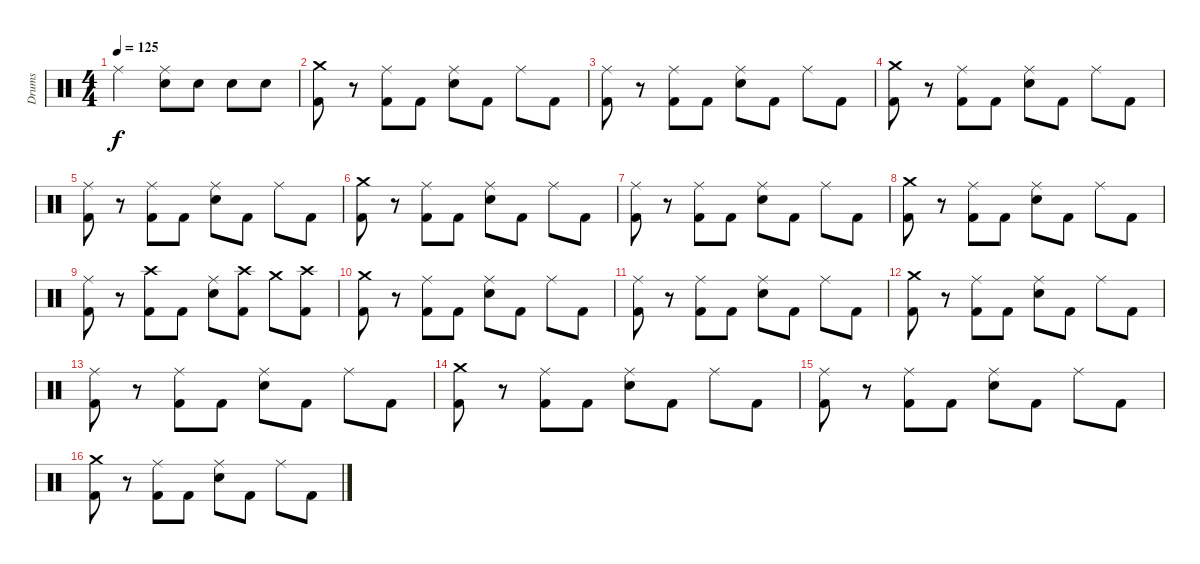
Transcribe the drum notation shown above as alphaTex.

\track ("Drums" "Drums") {instrument percussion}
\staff {score}
\articulation defaults
\ts (4 4)
\tempo 125
\clef neutral
\ks c "Ride (middle)".2{dy f}
("Ride (middle)" "Electric Snare (hit)").8 "Electric Snare (hit)".8 "Electric Snare (hit)".8 "Electric Snare (hit)".8 |
("Crash medium (hit)" "Kick (hit) 2").8 r.8 ("Ride (middle)" "Kick (hit) 2").8 "Kick (hit) 2".8 ("Ride (middle)" "Electric Snare (hit)").8 "Kick (hit) 2".8 "Ride (middle)".8 "Kick (hit) 2".8 |
("Ride (middle)" "Kick (hit) 2").8 r.8 ("Ride (middle)" "Kick (hit) 2").8 "Kick (hit) 2".8 ("Ride (middle)" "Electric Snare (hit)").8 "Kick (hit) 2".8 "Ride (middle)".8 "Kick (hit) 2".8 |
("Crash medium (hit)" "Kick (hit) 2").8 r.8 ("Ride (middle)" "Kick (hit) 2").8 "Kick (hit) 2".8 ("Ride (middle)" "Electric Snare (hit)").8 "Kick (hit) 2".8 "Ride (middle)".8 "Kick (hit) 2".8 |
("Ride (middle)" "Kick (hit) 2").8 r.8 ("Ride (middle)" "Kick (hit) 2").8 "Kick (hit) 2".8 ("Ride (middle)" "Electric Snare (hit)").8 "Kick (hit) 2".8 "Ride (middle)".8 "Kick (hit) 2".8 |
("Crash medium (hit)" "Kick (hit) 2").8 r.8 ("Ride (middle)" "Kick (hit) 2").8 "Kick (hit) 2".8 ("Ride (middle)" "Electric Snare (hit)").8 "Kick (hit) 2".8 "Ride (middle)".8 "Kick (hit) 2".8 |
("Ride (middle)" "Kick (hit) 2").8 r.8 ("Ride (middle)" "Kick (hit) 2").8 "Kick (hit) 2".8 ("Ride (middle)" "Electric Snare (hit)").8 "Kick (hit) 2".8 "Ride (middle)".8 "Kick (hit) 2".8 |
("Crash medium (hit)" "Kick (hit) 2").8 r.8 ("Ride (middle)" "Kick (hit) 2").8 "Kick (hit) 2".8 ("Ride (middle)" "Electric Snare (hit)").8 "Kick (hit) 2".8 "Ride (middle)".8 "Kick (hit) 2".8 |
("Ride (middle)" "Kick (hit) 2").8 r.8 ("Crash high (hit)" "Kick (hit) 2").8 "Kick (hit) 2".8 ("Ride (middle)" "Electric Snare (hit)").8 ("Crash high (hit)" "Kick (hit) 2").8 "Crash medium (hit)".8 ("Crash high (hit)" "Kick (hit) 2").8 |
("Crash medium (hit)" "Kick (hit) 2").8 r.8 ("Ride (middle)" "Kick (hit) 2").8 "Kick (hit) 2".8 ("Ride (middle)" "Electric Snare (hit)").8 "Kick (hit) 2".8 "Ride (middle)".8 "Kick (hit) 2".8 |
("Ride (middle)" "Kick (hit) 2").8 r.8 ("Ride (middle)" "Kick (hit) 2").8 "Kick (hit) 2".8 ("Ride (middle)" "Electric Snare (hit)").8 "Kick (hit) 2".8 "Ride (middle)".8 "Kick (hit) 2".8 |
("Crash medium (hit)" "Kick (hit) 2").8 r.8 ("Ride (middle)" "Kick (hit) 2").8 "Kick (hit) 2".8 ("Ride (middle)" "Electric Snare (hit)").8 "Kick (hit) 2".8 "Ride (middle)".8 "Kick (hit) 2".8 |
("Ride (middle)" "Kick (hit) 2").8 r.8 ("Ride (middle)" "Kick (hit) 2").8 "Kick (hit) 2".8 ("Ride (middle)" "Electric Snare (hit)").8 "Kick (hit) 2".8 "Ride (middle)".8 "Kick (hit) 2".8 |
("Crash medium (hit)" "Kick (hit) 2").8 r.8 ("Ride (middle)" "Kick (hit) 2").8 "Kick (hit) 2".8 ("Ride (middle)" "Electric Snare (hit)").8 "Kick (hit) 2".8 "Ride (middle)".8 "Kick (hit) 2".8 |
("Ride (middle)" "Kick (hit) 2").8 r.8 ("Ride (middle)" "Kick (hit) 2").8 "Kick (hit) 2".8 ("Ride (middle)" "Electric Snare (hit)").8 "Kick (hit) 2".8 "Ride (middle)".8 "Kick (hit) 2".8 |
("Crash medium (hit)" "Kick (hit) 2").8 r.8 ("Ride (middle)" "Kick (hit) 2").8 "Kick (hit) 2".8 ("Ride (middle)" "Electric Snare (hit)").8 "Kick (hit) 2".8 "Ride (middle)".8 "Kick (hit) 2".8
